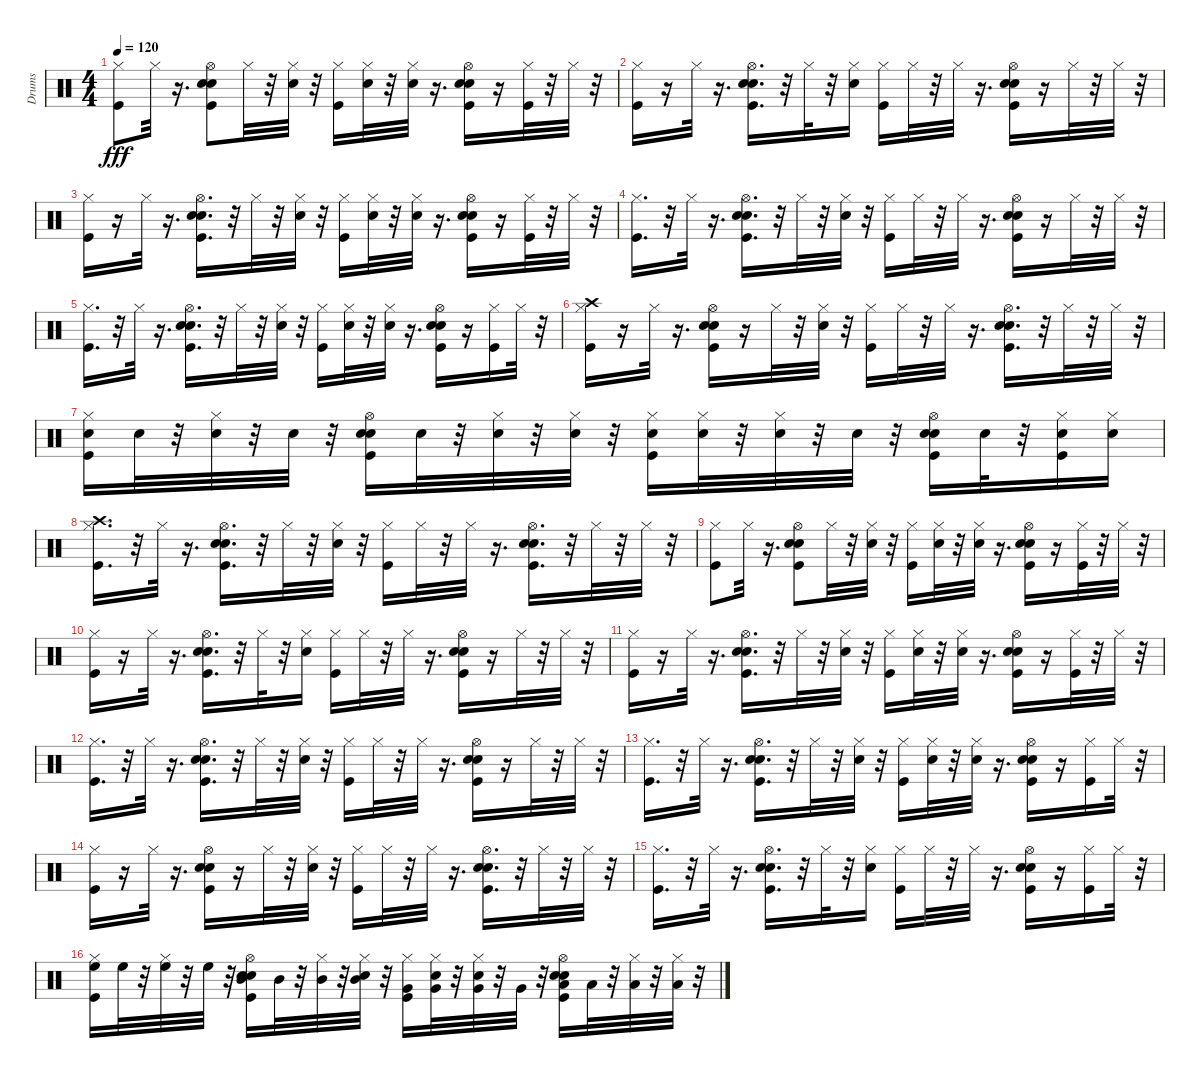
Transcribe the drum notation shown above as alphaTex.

\track ("Drums" "Drums") {instrument percussion}
\staff {score}
\articulation defaults
\ts (4 4)
\tempo 120
\clef neutral
\ks c
("Hi-Hat (closed)" "Kick (hit)").8{dy fff} "Hi-Hat (closed)".32 r.16{d} ("Hi-Hat (open)" "Kick (hit)" "Hand Clap (hit)" "Electric Snare (hit)").8 "Hi-Hat (closed)".32 r.32 ("Hi-Hat (closed)" "Electric Snare (hit)").32 r.32 ("Hi-Hat (closed)" "Kick (hit)").16 ("Hi-Hat (closed)" "Electric Snare (hit)").32 r.32 ("Hi-Hat (closed)" "Electric Snare (hit)").32 r.16{d} ("Hi-Hat (open)" "Kick (hit)" "Hand Clap (hit)" "Electric Snare (hit)").16 r.16 ("Hi-Hat (closed)" "Kick (hit)").32 r.32 "Hi-Hat (closed)".32 r.32 |
("Hi-Hat (closed)" "Kick (hit)").16 r.16 "Hi-Hat (closed)".32 r.16{d} ("Hi-Hat (open)" "Kick (hit)" "Hand Clap (hit)" "Electric Snare (hit)").16{d} r.32 "Hi-Hat (closed)".32 r.32 ("Hi-Hat (closed)" "Electric Snare (hit)").16 ("Hi-Hat (closed)" "Kick (hit)").16 "Hi-Hat (closed)".32 r.32 "Hi-Hat (closed)".32 r.16{d} ("Hi-Hat (open)" "Kick (hit)" "Hand Clap (hit)" "Electric Snare (hit)").16 r.16 "Hi-Hat (closed)".32 r.32 "Hi-Hat (closed)".32 r.32 |
("Hi-Hat (closed)" "Kick (hit)").16 r.16 "Hi-Hat (closed)".32 r.16{d} ("Hi-Hat (open)" "Kick (hit)" "Hand Clap (hit)" "Electric Snare (hit)").16{d} r.32 "Hi-Hat (closed)".32 r.32 ("Hi-Hat (closed)" "Electric Snare (hit)").32 r.32 ("Hi-Hat (closed)" "Kick (hit)").16 ("Hi-Hat (closed)" "Electric Snare (hit)").32 r.32 ("Hi-Hat (closed)" "Electric Snare (hit)").32 r.16{d} ("Hi-Hat (open)" "Kick (hit)" "Hand Clap (hit)" "Electric Snare (hit)").16 r.16 ("Hi-Hat (closed)" "Kick (hit)").32 r.32 "Hi-Hat (closed)".32 r.32 |
("Hi-Hat (closed)" "Kick (hit)").16{d} r.32 "Hi-Hat (closed)".32 r.16{d} ("Hi-Hat (open)" "Kick (hit)" "Hand Clap (hit)" "Electric Snare (hit)").16{d} r.32 "Hi-Hat (closed)".32 r.32 ("Hi-Hat (closed)" "Electric Snare (hit)").32 r.32 ("Hi-Hat (closed)" "Kick (hit)").16 "Hi-Hat (closed)".32 r.32 "Hi-Hat (closed)".32 r.16{d} ("Hi-Hat (open)" "Kick (hit)" "Hand Clap (hit)" "Electric Snare (hit)").16 r.16 "Hi-Hat (closed)".32 r.32 "Hi-Hat (closed)".32 r.32 |
("Hi-Hat (closed)" "Kick (hit)").16{d} r.32 "Hi-Hat (closed)".32 r.16{d} ("Hi-Hat (open)" "Kick (hit)" "Hand Clap (hit)" "Electric Snare (hit)").16{d} r.32 "Hi-Hat (closed)".32 r.32 ("Hi-Hat (closed)" "Electric Snare (hit)").32 r.32 ("Hi-Hat (closed)" "Kick (hit)").16 ("Hi-Hat (closed)" "Electric Snare (hit)").32 r.32 ("Hi-Hat (closed)" "Electric Snare (hit)").32 r.16{d} ("Hi-Hat (open)" "Kick (hit)" "Hand Clap (hit)" "Electric Snare (hit)").16 r.16 ("Hi-Hat (closed)" "Kick (hit)").16 "Hi-Hat (closed)".32 r.32 |
("Hi-Hat (closed)" "Kick (hit)" "Crash high (hit)").16 r.16 "Hi-Hat (closed)".32 r.16{d} ("Hi-Hat (open)" "Kick (hit)" "Hand Clap (hit)" "Electric Snare (hit)").16 r.16 "Hi-Hat (closed)".32 r.32 ("Hi-Hat (closed)" "Electric Snare (hit)").32 r.32 ("Hi-Hat (closed)" "Kick (hit)").16 "Hi-Hat (closed)".32 r.32 "Hi-Hat (closed)".32 r.16{d} ("Hi-Hat (open)" "Kick (hit)" "Hand Clap (hit)" "Electric Snare (hit)").16{d} r.32 "Hi-Hat (closed)".32 r.32 "Hi-Hat (closed)".32 r.32 |
("Hi-Hat (closed)" "Kick (hit)" "Electric Snare (hit)").16 "Electric Snare (hit)".32 r.32 ("Hi-Hat (closed)" "Electric Snare (hit)").32 r.32 "Electric Snare (hit)".32 r.32 ("Hi-Hat (open)" "Kick (hit)" "Hand Clap (hit)" "Electric Snare (hit)").16 "Electric Snare (hit)".32 r.32 ("Hi-Hat (closed)" "Electric Snare (hit)").32 r.32 ("Hi-Hat (closed)" "Electric Snare (hit)").32 r.32 ("Hi-Hat (closed)" "Kick (hit)" "Electric Snare (hit)").16 ("Hi-Hat (closed)" "Electric Snare (hit)").32 r.32 ("Hi-Hat (closed)" "Electric Snare (hit)").32 r.32 "Electric Snare (hit)".32 r.32 ("Hi-Hat (open)" "Kick (hit)" "Hand Clap (hit)" "Electric Snare (hit)").16 "Electric Snare (hit)".32 r.32 ("Hi-Hat (closed)" "Kick (hit)" "Electric Snare (hit)").16 ("Hi-Hat (closed)" "Electric Snare (hit)").16 |
("Hi-Hat (closed)" "Kick (hit)" "Crash high (hit)").16{d} r.32 "Hi-Hat (closed)".32 r.16{d} ("Hi-Hat (open)" "Kick (hit)" "Hand Clap (hit)" "Electric Snare (hit)").16{d} r.32 "Hi-Hat (closed)".32 r.32 ("Hi-Hat (closed)" "Electric Snare (hit)").32 r.32 ("Hi-Hat (closed)" "Kick (hit)").16 "Hi-Hat (closed)".32 r.32 "Hi-Hat (closed)".32 r.16{d} ("Hi-Hat (open)" "Kick (hit)" "Hand Clap (hit)" "Electric Snare (hit)").16{d} r.32 "Hi-Hat (closed)".32 r.32 "Hi-Hat (closed)".32 r.32 |
("Hi-Hat (closed)" "Kick (hit)").8 "Hi-Hat (closed)".32 r.16{d} ("Hi-Hat (open)" "Kick (hit)" "Hand Clap (hit)" "Electric Snare (hit)").8 "Hi-Hat (closed)".32 r.32 ("Hi-Hat (closed)" "Electric Snare (hit)").32 r.32 ("Hi-Hat (closed)" "Kick (hit)").16 ("Hi-Hat (closed)" "Electric Snare (hit)").32 r.32 ("Hi-Hat (closed)" "Electric Snare (hit)").32 r.16{d} ("Hi-Hat (open)" "Kick (hit)" "Hand Clap (hit)" "Electric Snare (hit)").16 r.16 ("Hi-Hat (closed)" "Kick (hit)").32 r.32 "Hi-Hat (closed)".32 r.32 |
("Hi-Hat (closed)" "Kick (hit)").16 r.16 "Hi-Hat (closed)".32 r.16{d} ("Hi-Hat (open)" "Kick (hit)" "Hand Clap (hit)" "Electric Snare (hit)").16{d} r.32 "Hi-Hat (closed)".32 r.32 ("Hi-Hat (closed)" "Electric Snare (hit)").16 ("Hi-Hat (closed)" "Kick (hit)").16 "Hi-Hat (closed)".32 r.32 "Hi-Hat (closed)".32 r.16{d} ("Hi-Hat (open)" "Kick (hit)" "Hand Clap (hit)" "Electric Snare (hit)").16 r.16 "Hi-Hat (closed)".32 r.32 "Hi-Hat (closed)".32 r.32 |
("Hi-Hat (closed)" "Kick (hit)").16 r.16 "Hi-Hat (closed)".32 r.16{d} ("Hi-Hat (open)" "Kick (hit)" "Hand Clap (hit)" "Electric Snare (hit)").16{d} r.32 "Hi-Hat (closed)".32 r.32 ("Hi-Hat (closed)" "Electric Snare (hit)").32 r.32 ("Hi-Hat (closed)" "Kick (hit)").16 ("Hi-Hat (closed)" "Electric Snare (hit)").32 r.32 ("Hi-Hat (closed)" "Electric Snare (hit)").32 r.16{d} ("Hi-Hat (open)" "Kick (hit)" "Hand Clap (hit)" "Electric Snare (hit)").16 r.16 ("Hi-Hat (closed)" "Kick (hit)").32 r.32 "Hi-Hat (closed)".32 r.32 |
("Hi-Hat (closed)" "Kick (hit)").16{d} r.32 "Hi-Hat (closed)".32 r.16{d} ("Hi-Hat (open)" "Kick (hit)" "Hand Clap (hit)" "Electric Snare (hit)").16{d} r.32 "Hi-Hat (closed)".32 r.32 ("Hi-Hat (closed)" "Electric Snare (hit)").32 r.32 ("Hi-Hat (closed)" "Kick (hit)").16 "Hi-Hat (closed)".32 r.32 "Hi-Hat (closed)".32 r.16{d} ("Hi-Hat (open)" "Kick (hit)" "Hand Clap (hit)" "Electric Snare (hit)").16 r.16 "Hi-Hat (closed)".32 r.32 "Hi-Hat (closed)".32 r.32 |
("Hi-Hat (closed)" "Kick (hit)").16{d} r.32 "Hi-Hat (closed)".32 r.16{d} ("Hi-Hat (open)" "Kick (hit)" "Hand Clap (hit)" "Electric Snare (hit)").16{d} r.32 "Hi-Hat (closed)".32 r.32 ("Hi-Hat (closed)" "Electric Snare (hit)").32 r.32 ("Hi-Hat (closed)" "Kick (hit)").16 ("Hi-Hat (closed)" "Electric Snare (hit)").32 r.32 ("Hi-Hat (closed)" "Electric Snare (hit)").32 r.16{d} ("Hi-Hat (open)" "Kick (hit)" "Hand Clap (hit)" "Electric Snare (hit)").16 r.16 ("Hi-Hat (closed)" "Kick (hit)").16 "Hi-Hat (closed)".32 r.32 |
("Hi-Hat (closed)" "Kick (hit)").16 r.16 "Hi-Hat (closed)".32 r.16{d} ("Hi-Hat (open)" "Kick (hit)" "Hand Clap (hit)" "Electric Snare (hit)").16 r.16 "Hi-Hat (closed)".32 r.32 ("Hi-Hat (closed)" "Electric Snare (hit)").32 r.32 ("Hi-Hat (closed)" "Kick (hit)").16 "Hi-Hat (closed)".32 r.32 "Hi-Hat (closed)".32 r.16{d} ("Hi-Hat (open)" "Kick (hit)" "Hand Clap (hit)" "Electric Snare (hit)").16{d} r.32 "Hi-Hat (closed)".32 r.32 "Hi-Hat (closed)".32 r.32 |
("Hi-Hat (closed)" "Kick (hit)").16{d} r.32 "Hi-Hat (closed)".32 r.16{d} ("Hi-Hat (open)" "Kick (hit)" "Hand Clap (hit)" "Electric Snare (hit)").16{d} r.32 "Hi-Hat (closed)".32 r.32 ("Hi-Hat (closed)" "Electric Snare (hit)").16 ("Hi-Hat (closed)" "Kick (hit)").16 "Hi-Hat (closed)".32 r.32 "Hi-Hat (closed)".32 r.16{d} ("Hi-Hat (open)" "Kick (hit)" "Hand Clap (hit)" "Electric Snare (hit)").16 r.16 ("Hi-Hat (closed)" "Kick (hit)").16 "Hi-Hat (closed)".32 r.32 |
("Hi-Hat (closed)" "Kick (hit)" "High Floor Tom (hit)").16 "High Floor Tom (hit)".32 r.32 ("Hi-Hat (closed)" "High Floor Tom (hit)").32 r.32 "High Floor Tom (hit)".32 r.32 ("Hi-Hat (open)" "Kick (hit)" "Mid Tom (hit)" "Hand Clap (hit)" "Electric Snare (hit)").16 "Mid Tom (hit)".32 r.32 ("Hi-Hat (closed)" "Mid Tom (hit)").32 r.32 ("Hi-Hat (closed)" "Electric Snare (hit)" "Mid Tom (hit)").32 r.32 ("Hi-Hat (closed)" "Kick (hit)" "Very Low Tom (hit)").16 ("Hi-Hat (closed)" "Electric Snare (hit)" "Very Low Tom (hit)").32 r.32 ("Hi-Hat (closed)" "Electric Snare (hit)" "Very Low Tom (hit)").32 r.32 "Very Low Tom (hit)".32 r.32 ("Low Floor Tom (hit)" "Kick (hit)" "Hi-Hat (open)" "Hand Clap (hit)" "Electric Snare (hit)").16 "Low Floor Tom (hit)".32 r.32 ("Low Floor Tom (hit)" "Hi-Hat (closed)").32 r.32 ("Low Floor Tom (hit)" "Hi-Hat (closed)").32 r.32
